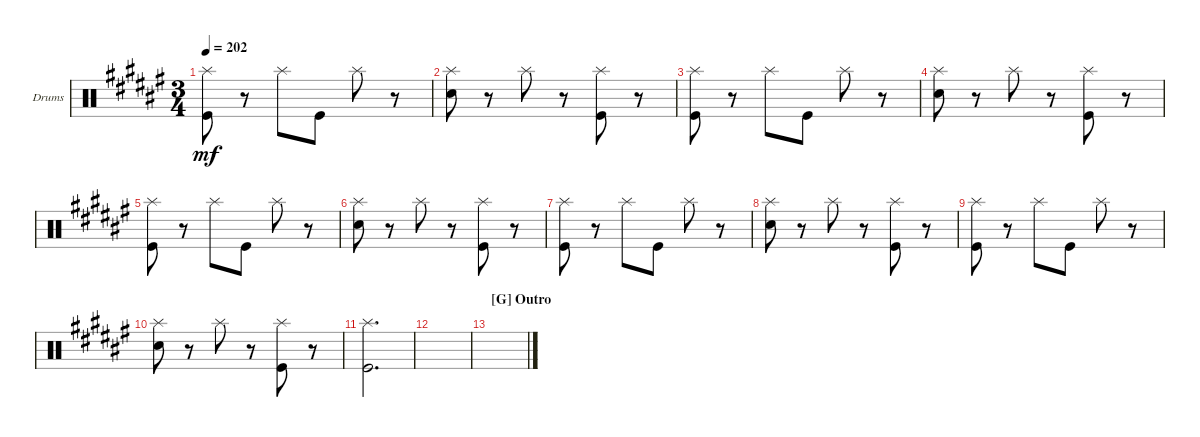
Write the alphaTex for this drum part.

\defaultSystemsLayout 4
\bracketExtendMode groupsimilarinstruments
\firstSystemTrackNameOrientation horizontal
\otherSystemsTrackNameOrientation horizontal
\track ("Drumkit" "Drums") {instrument percussion}
\staff {score}
\articulation defaults
\ts (3 4)
\tempo 202
\clef neutral
\ks f#
("Kick (hit)" "Splash (hit)").8{dy mf} r.8 "Splash (hit)".8 "Kick (hit)".8 "Splash (hit)".8 r.8 |
("Snare (hit) 2" "Splash (hit)").8 r.8 "Splash (hit)".8 r.8 ("Kick (hit)" "Splash (hit)").8 r.8 |
("Kick (hit)" "Splash (hit)").8 r.8 "Splash (hit)".8 "Kick (hit)".8 "Splash (hit)".8 r.8 |
("Snare (hit) 2" "Splash (hit)").8 r.8 "Splash (hit)".8 r.8 ("Kick (hit)" "Splash (hit)").8 r.8 |
("Kick (hit)" "Splash (hit)").8 r.8 "Splash (hit)".8 "Kick (hit)".8 "Splash (hit)".8 r.8 |
("Snare (hit) 2" "Splash (hit)").8 r.8 "Splash (hit)".8 r.8 ("Kick (hit)" "Splash (hit)").8 r.8 |
("Kick (hit)" "Splash (hit)").8 r.8 "Splash (hit)".8 "Kick (hit)".8 "Splash (hit)".8 r.8 |
("Snare (hit) 2" "Splash (hit)").8 r.8 "Splash (hit)".8 r.8 ("Kick (hit)" "Splash (hit)").8 r.8 |
("Kick (hit)" "Splash (hit)").8 r.8 "Splash (hit)".8 "Kick (hit)".8 "Splash (hit)".8 r.8 |
("Snare (hit) 2" "Splash (hit)").8 r.8 "Splash (hit)".8 r.8 ("Kick (hit)" "Splash (hit)").8 r.8 |
("Kick (hit)" "Splash (hit)").2{d} |
|
\section ("G" "Outro")
